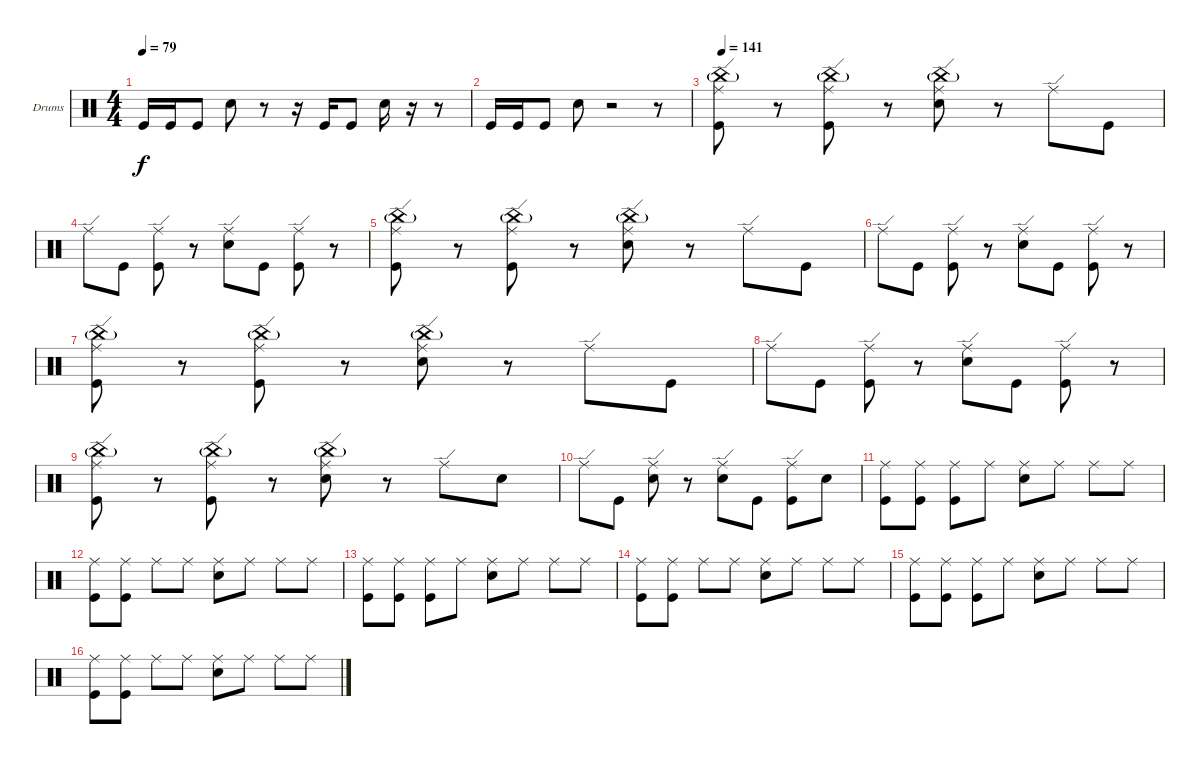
\bracketExtendMode groupsimilarinstruments
\firstSystemTrackNameOrientation horizontal
\otherSystemsTrackNameOrientation horizontal
\track ("Drumkit" "Drums") {instrument percussion}
\staff {score}
\articulation defaults
\ts (4 4)
\beaming (8 2 2 2 2)
\tempo 79
\clef neutral
\ks c "Kick (hit)".16{dy f} "Kick (hit)".16 "Kick (hit)".8 "Snare (hit) 2".8
r.8 r.16 "Kick (hit)".16 "Kick (hit)".8 "Snare (hit) 2".16 r.16 r.8 |
"Kick (hit)".16 "Kick (hit)".16 "Kick (hit)".8 "Snare (hit) 2".8 r.2 r.8 |
\tempo 141
("Kick (hit)" "Ride (edge)" "China (hit)"{g}).8 r.8 ("Kick (hit)" "Ride (edge)" "China (hit)"{g}).8 r.8 ("Snare (hit) 2" "Ride (edge)" "China (hit)"{g}).8 r.8 "Ride (edge)".8 "Kick (hit)".8 |
"Ride (edge)".8 "Kick (hit)".8 ("Ride (edge)" "Kick (hit)").8 r.8 ("Ride (edge)" "Snare (hit) 2").8 "Kick (hit)".8 ("Ride (edge)" "Kick (hit)").8 r.8 |
("Kick (hit)" "Ride (edge)" "China (hit)"{g}).8 r.8 ("Kick (hit)" "Ride (edge)" "China (hit)"{g}).8 r.8 ("Snare (hit) 2" "Ride (edge)" "China (hit)"{g}).8 r.8 "Ride (edge)".8 "Kick (hit)".8 |
"Ride (edge)".8 "Kick (hit)".8 ("Ride (edge)" "Kick (hit)").8 r.8 ("Ride (edge)" "Snare (hit) 2").8 "Kick (hit)".8 ("Ride (edge)" "Kick (hit)").8 r.8 |
("Kick (hit)" "Ride (edge)" "China (hit)"{g}).8 r.8 ("Kick (hit)" "Ride (edge)" "China (hit)"{g}).8 r.8 ("Snare (hit) 2" "Ride (edge)" "China (hit)"{g}).8 r.8 "Ride (edge)".8 "Kick (hit)".8 |
"Ride (edge)".8 "Kick (hit)".8 ("Ride (edge)" "Kick (hit)").8 r.8 ("Ride (edge)" "Snare (hit) 2").8 "Kick (hit)".8 ("Ride (edge)" "Kick (hit)").8 r.8 |
("Kick (hit)" "Ride (edge)" "China (hit)"{g}).8 r.8 ("Kick (hit)" "Ride (edge)" "China (hit)"{g}).8 r.8 ("Snare (hit) 2" "Ride (edge)" "China (hit)"{g}).8 r.8 "Ride (edge)".8 "Snare (hit) 2".8 |
"Ride (edge)".8 "Kick (hit)".8 ("Ride (edge)" "Snare (hit) 2").8 r.8 ("Ride (edge)" "Snare (hit) 2").8 "Kick (hit)".8 ("Ride (edge)" "Kick (hit)").8 "Snare (hit) 2".8 |
("Ride (middle)" "Kick (hit)").8 ("Ride (middle)" "Kick (hit)").8 ("Ride (middle)" "Kick (hit)").8 "Ride (middle)".8 ("Ride (middle)" "Snare (hit) 2").8 "Ride (middle)".8 "Ride (middle)".8 "Ride (middle)".8 |
("Ride (middle)" "Kick (hit)").8 ("Ride (middle)" "Kick (hit)").8 "Ride (middle)".8 "Ride (middle)".8 ("Ride (middle)" "Snare (hit) 2").8 "Ride (middle)".8 "Ride (middle)".8 "Ride (middle)".8 |
("Ride (middle)" "Kick (hit)").8 ("Ride (middle)" "Kick (hit)").8 ("Ride (middle)" "Kick (hit)").8 "Ride (middle)".8 ("Ride (middle)" "Snare (hit) 2").8 "Ride (middle)".8 "Ride (middle)".8 "Ride (middle)".8 |
("Ride (middle)" "Kick (hit)").8 ("Ride (middle)" "Kick (hit)").8 "Ride (middle)".8 "Ride (middle)".8 ("Ride (middle)" "Snare (hit) 2").8 "Ride (middle)".8 "Ride (middle)".8 "Ride (middle)".8 |
("Ride (middle)" "Kick (hit)").8 ("Ride (middle)" "Kick (hit)").8 ("Ride (middle)" "Kick (hit)").8 "Ride (middle)".8 ("Ride (middle)" "Snare (hit) 2").8 "Ride (middle)".8 "Ride (middle)".8 "Ride (middle)".8 |
("Ride (middle)" "Kick (hit)").8 ("Ride (middle)" "Kick (hit)").8 "Ride (middle)".8 "Ride (middle)".8 ("Ride (middle)" "Snare (hit) 2").8 "Ride (middle)".8 "Ride (middle)".8 "Ride (middle)".8
